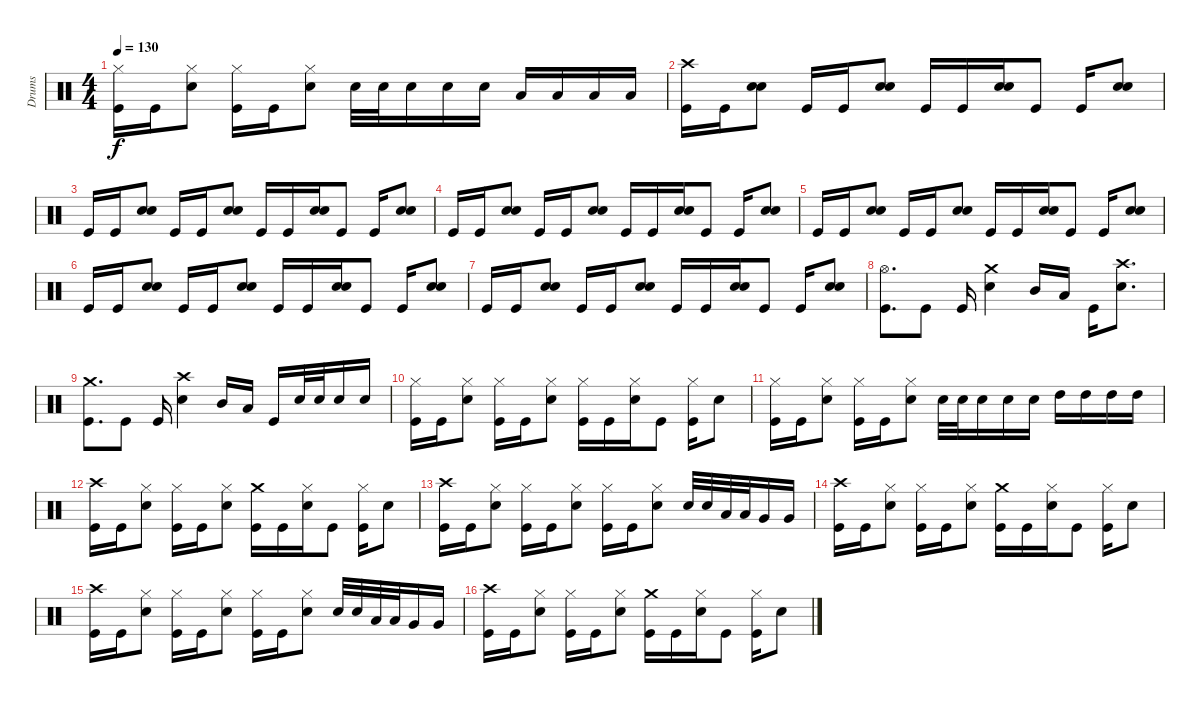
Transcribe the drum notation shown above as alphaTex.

\track ("Drums" "Drums") {instrument percussion}
\staff {score}
\articulation defaults
\ts (4 4)
\tempo 130
\clef neutral
\ks c
("Hi-Hat (closed)" "Kick (hit)").16{dy f} "Kick (hit)".16 ("Hi-Hat (closed)" "Snare (hit) 2").8 ("Hi-Hat (closed)" "Kick (hit)").16 "Kick (hit)".16 ("Hi-Hat (closed)" "Snare (hit) 2").8 "Snare (hit) 2".32 "Snare (hit) 2".32 "Snare (hit) 2".16 "Snare (hit) 2".16 "Snare (hit) 2".16 "Low Tom (hit)".16 "Low Tom (hit)".16 "Low Floor Tom (hit)".16 "Low Floor Tom (hit)".16 |
("Crash high (hit)" "Kick (hit)").16 "Kick (hit)".16 ("Snare (hit) 2" "Snare (hit) 2").8 "Kick (hit)".16 "Kick (hit)".16 ("Snare (hit) 2" "Snare (hit) 2").8 "Kick (hit)".16 "Kick (hit)".16 ("Snare (hit) 2" "Snare (hit) 2").16 "Kick (hit)".8 "Kick (hit)".16 ("Snare (hit) 2" "Snare (hit) 2").8 |
"Kick (hit)".16 "Kick (hit)".16 ("Snare (hit) 2" "Snare (hit) 2").8 "Kick (hit)".16 "Kick (hit)".16 ("Snare (hit) 2" "Snare (hit) 2").8 "Kick (hit)".16 "Kick (hit)".16 ("Snare (hit) 2" "Snare (hit) 2").16 "Kick (hit)".8 "Kick (hit)".16 ("Snare (hit) 2" "Snare (hit) 2").8 |
"Kick (hit)".16 "Kick (hit)".16 ("Snare (hit) 2" "Snare (hit) 2").8 "Kick (hit)".16 "Kick (hit)".16 ("Snare (hit) 2" "Snare (hit) 2").8 "Kick (hit)".16 "Kick (hit)".16 ("Snare (hit) 2" "Snare (hit) 2").16 "Kick (hit)".8 "Kick (hit)".16 ("Snare (hit) 2" "Snare (hit) 2").8 |
"Kick (hit)".16 "Kick (hit)".16 ("Snare (hit) 2" "Snare (hit) 2").8 "Kick (hit)".16 "Kick (hit)".16 ("Snare (hit) 2" "Snare (hit) 2").8 "Kick (hit)".16 "Kick (hit)".16 ("Snare (hit) 2" "Snare (hit) 2").16 "Kick (hit)".8 "Kick (hit)".16 ("Snare (hit) 2" "Snare (hit) 2").8 |
"Kick (hit)".16 "Kick (hit)".16 ("Snare (hit) 2" "Snare (hit) 2").8 "Kick (hit)".16 "Kick (hit)".16 ("Snare (hit) 2" "Snare (hit) 2").8 "Kick (hit)".16 "Kick (hit)".16 ("Snare (hit) 2" "Snare (hit) 2").16 "Kick (hit)".8 "Kick (hit)".16 ("Snare (hit) 2" "Snare (hit) 2").8 |
"Kick (hit)".16 "Kick (hit)".16 ("Snare (hit) 2" "Snare (hit) 2").8 "Kick (hit)".16 "Kick (hit)".16 ("Snare (hit) 2" "Snare (hit) 2").8 "Kick (hit)".16 "Kick (hit)".16 ("Snare (hit) 2" "Snare (hit) 2").16 "Kick (hit)".8 "Kick (hit)".16 ("Snare (hit) 2" "Snare (hit) 2").8 |
("Hi-Hat (open)" "Kick (hit)").8{d} "Kick (hit)".8 "Kick (hit)".16 ("Crash medium (hit)" "Snare (hit) 2").4 "Mid Tom (hit)".16 "Low Tom (hit)".16 "Kick (hit)".16 ("Crash high (hit)" "Snare (hit) 2").8{d} |
("Crash medium (hit)" "Kick (hit)").8{d} "Kick (hit)".8 "Kick (hit)".16 ("Crash high (hit)" "Snare (hit) 2").4 "Mid Tom (hit)".16 "Low Tom (hit)".16 "Kick (hit)".16 "Snare (hit) 2".32 "Snare (hit) 2".32 "Snare (hit) 2".16 "Snare (hit) 2".16 |
("Hi-Hat (closed)" "Kick (hit)").16 "Kick (hit)".16 ("Hi-Hat (closed)" "Snare (hit) 2").8 ("Hi-Hat (closed)" "Kick (hit)").16 "Kick (hit)".16 ("Hi-Hat (closed)" "Snare (hit) 2").8 ("Hi-Hat (closed)" "Kick (hit)").16 "Kick (hit)".16 ("Hi-Hat (closed)" "Snare (hit) 2").16 "Kick (hit)".8 ("Hi-Hat (closed)" "Kick (hit)").16 "Snare (hit) 2".8 |
("Hi-Hat (closed)" "Kick (hit)").16 "Kick (hit)".16 ("Hi-Hat (closed)" "Snare (hit) 2").8 ("Hi-Hat (closed)" "Kick (hit)").16 "Kick (hit)".16 ("Hi-Hat (closed)" "Snare (hit) 2").8 "Snare (hit) 2".32 "Snare (hit) 2".32 "Snare (hit) 2".16 "Snare (hit) 2".16 "Snare (hit) 2".16 "High Tom (hit)".16 "High Tom (hit)".16 "High Tom (hit)".16 "High Tom (hit)".16 |
("Crash high (hit)" "Kick (hit)").16 "Kick (hit)".16 ("Hi-Hat (closed)" "Snare (hit) 2").8 ("Hi-Hat (closed)" "Kick (hit)").16 "Kick (hit)".16 ("Hi-Hat (closed)" "Snare (hit) 2").8 ("Crash medium (hit)" "Kick (hit)").16 "Kick (hit)".16 ("Hi-Hat (closed)" "Snare (hit) 2").16 "Kick (hit)".8 ("Hi-Hat (closed)" "Kick (hit)").16 "Snare (hit) 2".8 |
("Crash high (hit)" "Kick (hit)").16 "Kick (hit)".16 ("Hi-Hat (closed)" "Snare (hit) 2").8 ("Hi-Hat (closed)" "Kick (hit)").16 "Kick (hit)".16 ("Hi-Hat (closed)" "Snare (hit) 2").8 ("Hi-Hat (closed)" "Kick (hit)").16 "Kick (hit)".16 ("Hi-Hat (closed)" "Snare (hit) 2").8 "Snare (hit) 2".32 "Snare (hit) 2".32 "Low Tom (hit)".32 "Low Tom (hit)".32 "Very Low Tom (hit)".16 "Very Low Tom (hit)".16 |
("Crash high (hit)" "Kick (hit)").16 "Kick (hit)".16 ("Hi-Hat (closed)" "Snare (hit) 2").8 ("Hi-Hat (closed)" "Kick (hit)").16 "Kick (hit)".16 ("Hi-Hat (closed)" "Snare (hit) 2").8 ("Crash medium (hit)" "Kick (hit)").16 "Kick (hit)".16 ("Hi-Hat (closed)" "Snare (hit) 2").16 "Kick (hit)".8 ("Hi-Hat (closed)" "Kick (hit)").16 "Snare (hit) 2".8 |
("Crash high (hit)" "Kick (hit)").16 "Kick (hit)".16 ("Hi-Hat (closed)" "Snare (hit) 2").8 ("Hi-Hat (closed)" "Kick (hit)").16 "Kick (hit)".16 ("Hi-Hat (closed)" "Snare (hit) 2").8 ("Hi-Hat (closed)" "Kick (hit)").16 "Kick (hit)".16 ("Hi-Hat (closed)" "Snare (hit) 2").8 "Snare (hit) 2".32 "Snare (hit) 2".32 "Low Tom (hit)".32 "Low Tom (hit)".32 "Very Low Tom (hit)".16 "Very Low Tom (hit)".16 |
("Crash high (hit)" "Kick (hit)").16 "Kick (hit)".16 ("Hi-Hat (closed)" "Snare (hit) 2").8 ("Hi-Hat (closed)" "Kick (hit)").16 "Kick (hit)".16 ("Hi-Hat (closed)" "Snare (hit) 2").8 ("Crash medium (hit)" "Kick (hit)").16 "Kick (hit)".16 ("Hi-Hat (closed)" "Snare (hit) 2").16 "Kick (hit)".8 ("Hi-Hat (closed)" "Kick (hit)").16 "Snare (hit) 2".8
